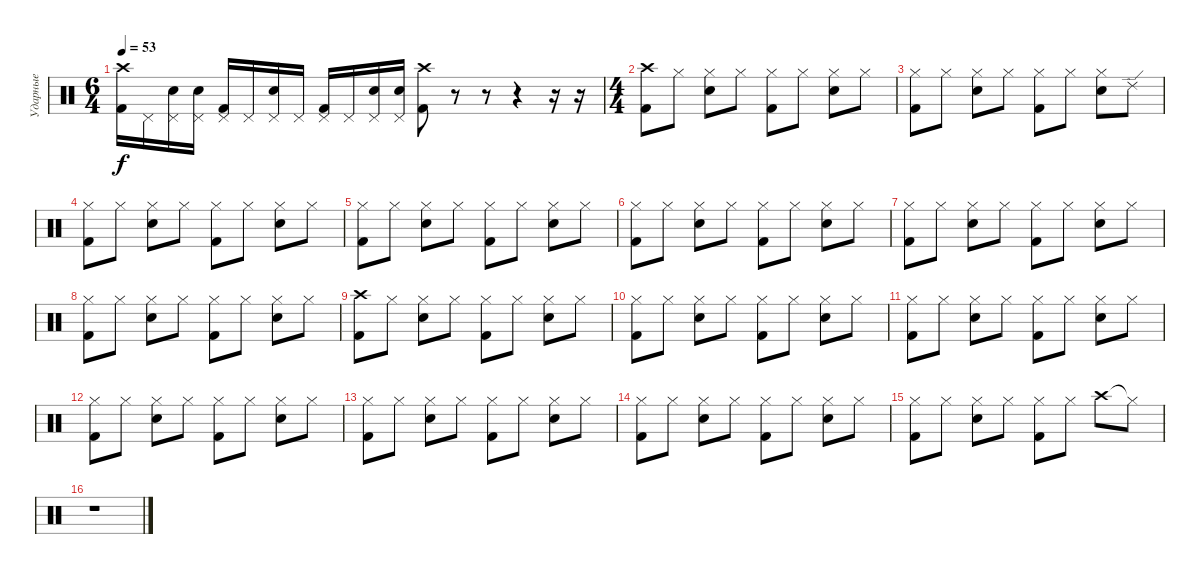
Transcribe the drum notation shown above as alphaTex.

\track ("Ударные" "Ударные") {instrument percussion}
\staff {score}
\articulation defaults
\ts (6 4)
\tempo 53
\clef neutral
\ks c
("Crash high (hit)" "Kick (hit) 2").16{dy f} "Pedal Hi-Hat (hit)".16 ("Pedal Hi-Hat (hit)" "Snare (hit) 2").16 ("Pedal Hi-Hat (hit)" "Snare (hit) 2").16 ("Pedal Hi-Hat (hit)" "Kick (hit) 2").16 "Pedal Hi-Hat (hit)".16 ("Pedal Hi-Hat (hit)" "Snare (hit) 2").16 "Pedal Hi-Hat (hit)".16 ("Pedal Hi-Hat (hit)" "Kick (hit) 2").16 "Pedal Hi-Hat (hit)".16 ("Pedal Hi-Hat (hit)" "Snare (hit) 2").16 ("Pedal Hi-Hat (hit)" "Snare (hit) 2").16 ("Crash high (hit)" "Kick (hit) 2").8 r.8 r.8 r.4 r.16 r.16 |
\ts (4 4)
("Crash high (hit)" "Kick (hit) 2").8 "Hi-Hat (closed)".8 ("Hi-Hat (closed)" "Snare (hit) 2").8 "Hi-Hat (closed)".8 ("Hi-Hat (closed)" "Kick (hit) 2").8 "Hi-Hat (closed)".8 ("Hi-Hat (closed)" "Snare (hit) 2").8 "Hi-Hat (closed)".8 |
("Hi-Hat (closed)" "Kick (hit) 2").8 "Hi-Hat (closed)".8 ("Hi-Hat (closed)" "Snare (hit) 2").8 "Hi-Hat (closed)".8 ("Hi-Hat (closed)" "Kick (hit) 2").8 "Hi-Hat (closed)".8 ("Hi-Hat (closed)" "Snare (hit) 2").8 "Ride (edge) 2".8 |
("Hi-Hat (closed)" "Kick (hit) 2").8 "Hi-Hat (closed)".8 ("Hi-Hat (closed)" "Snare (hit) 2").8 "Hi-Hat (closed)".8 ("Hi-Hat (closed)" "Kick (hit) 2").8 "Hi-Hat (closed)".8 ("Hi-Hat (closed)" "Snare (hit) 2").8 "Hi-Hat (closed)".8 |
("Hi-Hat (closed)" "Kick (hit) 2").8 "Hi-Hat (closed)".8 ("Hi-Hat (closed)" "Snare (hit) 2").8 "Hi-Hat (closed)".8 ("Hi-Hat (closed)" "Kick (hit) 2").8 "Hi-Hat (closed)".8 ("Hi-Hat (closed)" "Snare (hit) 2").8 "Hi-Hat (closed)".8 |
("Hi-Hat (closed)" "Kick (hit) 2").8 "Hi-Hat (closed)".8 ("Hi-Hat (closed)" "Snare (hit) 2").8 "Hi-Hat (closed)".8 ("Hi-Hat (closed)" "Kick (hit) 2").8 "Hi-Hat (closed)".8 ("Hi-Hat (closed)" "Snare (hit) 2").8 "Hi-Hat (closed)".8 |
("Hi-Hat (closed)" "Kick (hit) 2").8 "Hi-Hat (closed)".8 ("Hi-Hat (closed)" "Snare (hit) 2").8 "Hi-Hat (closed)".8 ("Hi-Hat (closed)" "Kick (hit) 2").8 "Hi-Hat (closed)".8 ("Hi-Hat (closed)" "Snare (hit) 2").8 "Hi-Hat (closed)".8 |
("Hi-Hat (closed)" "Kick (hit) 2").8 "Hi-Hat (closed)".8 ("Hi-Hat (closed)" "Snare (hit) 2").8 "Hi-Hat (closed)".8 ("Hi-Hat (closed)" "Kick (hit) 2").8 "Hi-Hat (closed)".8 ("Hi-Hat (closed)" "Snare (hit) 2").8 "Hi-Hat (closed)".8 |
("Crash high (hit)" "Kick (hit) 2").8 "Hi-Hat (closed)".8 ("Hi-Hat (closed)" "Snare (hit) 2").8 "Hi-Hat (closed)".8 ("Hi-Hat (closed)" "Kick (hit) 2").8 "Hi-Hat (closed)".8 ("Hi-Hat (closed)" "Snare (hit) 2").8 "Hi-Hat (closed)".8 |
("Hi-Hat (closed)" "Kick (hit) 2").8 "Hi-Hat (closed)".8 ("Hi-Hat (closed)" "Snare (hit) 2").8 "Hi-Hat (closed)".8 ("Hi-Hat (closed)" "Kick (hit) 2").8 "Hi-Hat (closed)".8 ("Hi-Hat (closed)" "Snare (hit) 2").8 "Hi-Hat (closed)".8 |
("Hi-Hat (closed)" "Kick (hit) 2").8 "Hi-Hat (closed)".8 ("Hi-Hat (closed)" "Snare (hit) 2").8 "Hi-Hat (closed)".8 ("Hi-Hat (closed)" "Kick (hit) 2").8 "Hi-Hat (closed)".8 ("Hi-Hat (closed)" "Snare (hit) 2").8 "Hi-Hat (closed)".8 |
("Hi-Hat (closed)" "Kick (hit) 2").8 "Hi-Hat (closed)".8 ("Hi-Hat (closed)" "Snare (hit) 2").8 "Hi-Hat (closed)".8 ("Hi-Hat (closed)" "Kick (hit) 2").8 "Hi-Hat (closed)".8 ("Hi-Hat (closed)" "Snare (hit) 2").8 "Hi-Hat (closed)".8 |
("Hi-Hat (closed)" "Kick (hit) 2").8 "Hi-Hat (closed)".8 ("Hi-Hat (closed)" "Snare (hit) 2").8 "Hi-Hat (closed)".8 ("Hi-Hat (closed)" "Kick (hit) 2").8 "Hi-Hat (closed)".8 ("Hi-Hat (closed)" "Snare (hit) 2").8 "Hi-Hat (closed)".8 |
("Hi-Hat (closed)" "Kick (hit) 2").8 "Hi-Hat (closed)".8 ("Hi-Hat (closed)" "Snare (hit) 2").8 "Hi-Hat (closed)".8 ("Hi-Hat (closed)" "Kick (hit) 2").8 "Hi-Hat (closed)".8 ("Hi-Hat (closed)" "Snare (hit) 2").8 "Hi-Hat (closed)".8 |
("Hi-Hat (closed)" "Kick (hit) 2").8 "Hi-Hat (closed)".8 ("Hi-Hat (closed)" "Snare (hit) 2").8 "Hi-Hat (closed)".8 ("Hi-Hat (closed)" "Kick (hit) 2").8 "Hi-Hat (closed)".8 "Crash high (hit)".8 "Hi-Hat (closed)"{t}.8 |
r.1
